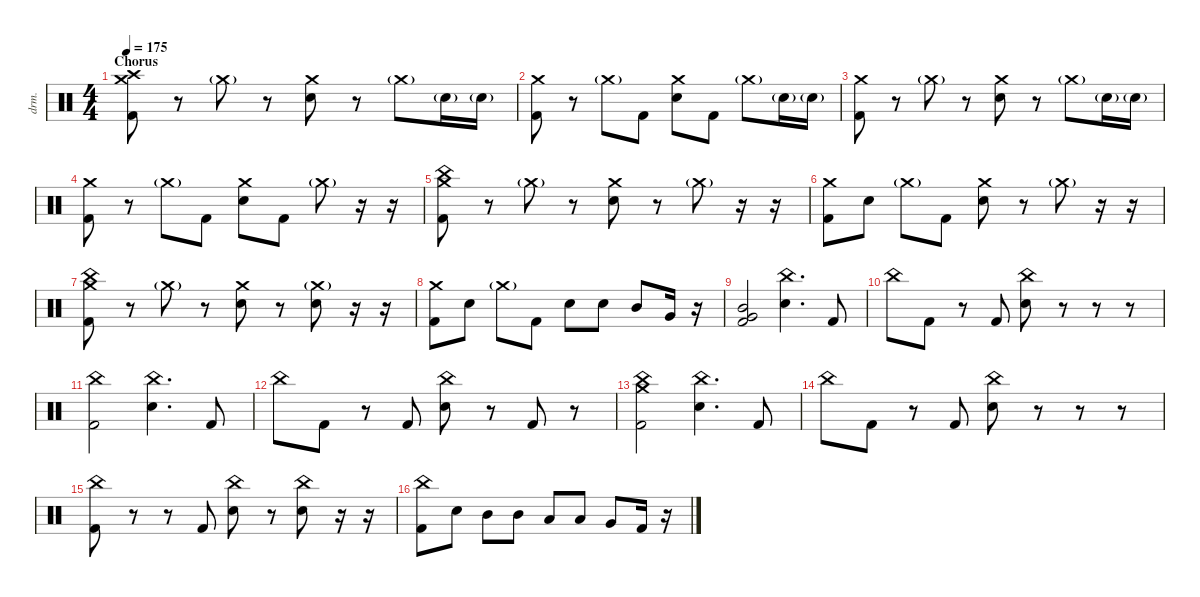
\defaultSystemsLayout 4
\hideDynamics
\bracketExtendMode nobrackets
\track ("Drums - Mario" "drm.") {instrument percussion}
\staff {score}
\articulation defaults
\ts (4 4)
\section ("" "Chorus")
\tempo 175
\clef neutral
\ks c
("Crash medium (hit)" "Crash high (hit)" "Kick (hit) 2").8{dy ff} r.8 "Crash medium (hit)"{g}.8 r.8 ("Crash medium (hit)" "Snare (hit) 2").8 r.8 "Crash medium (hit)"{g}.8 "Snare (hit) 2"{g}.16 "Snare (hit) 2"{g}.16 |
("Crash medium (hit)" "Kick (hit) 2").8 r.8 "Crash medium (hit)"{g}.8 "Kick (hit) 2".8 ("Crash medium (hit)" "Snare (hit) 2").8 "Kick (hit) 2".8 "Crash medium (hit)"{g}.8 "Snare (hit) 2"{g}.16 "Snare (hit) 2"{g}.16 |
("Crash medium (hit)" "Kick (hit) 2").8 r.8 "Crash medium (hit)"{g}.8 r.8 ("Crash medium (hit)" "Snare (hit) 2").8 r.8 "Crash medium (hit)"{g}.8 "Snare (hit) 2"{g}.16 "Snare (hit) 2"{g}.16 |
("Crash medium (hit)" "Kick (hit) 2").8 r.8 "Crash medium (hit)"{g}.8 "Kick (hit) 2".8 ("Crash medium (hit)" "Snare (hit) 2").8 "Kick (hit) 2".8 "Crash medium (hit)"{g}.8 r.16 r.16 |
("Crash medium (hit)" "China (hit)" "Kick (hit) 2").8 r.8 "Crash medium (hit)"{g}.8 r.8 ("Crash medium (hit)" "Snare (hit) 2").8 r.8 "Crash medium (hit)"{g}.8 r.16 r.16 |
("Crash medium (hit)" "Kick (hit) 2").8 "Snare (hit) 2".8 "Crash medium (hit)"{g}.8 "Kick (hit) 2".8 ("Crash medium (hit)" "Snare (hit) 2").8 r.8 "Crash medium (hit)"{g}.8 r.16 r.16 |
("Crash medium (hit)" "Kick (hit) 2" "China (hit)").8 r.8 "Crash medium (hit)"{g}.8 r.8 ("Crash medium (hit)" "Snare (hit) 2").8 r.8 ("Crash medium (hit)"{g} "Snare (hit) 2").8 r.16 r.16 |
("Crash medium (hit)" "Kick (hit) 2").8 "Snare (hit) 2".8 "Crash medium (hit)"{g}.8 "Kick (hit) 2".8 "Snare (hit) 2".8 "Snare (hit) 2".8 "Mid Tom (hit)".8 "Very Low Tom (hit)".16 r.16 |
("Kick (hit) 2" "Very Low Tom (hit)" "Mid Tom (hit)").2 ("Snare (hit) 2" "China (hit)").4{d} "Kick (hit) 2".8 |
"China (hit)".8 "Kick (hit) 2".8 r.8 "Kick (hit) 2".8 ("Snare (hit) 2" "China (hit)").8 r.8 r.8 r.8 |
("Kick (hit) 2" "China (hit)").2 ("Snare (hit) 2" "China (hit)").4{d} "Kick (hit) 2".8 |
"China (hit)".8 "Kick (hit) 2".8 r.8 "Kick (hit) 2".8 ("Snare (hit) 2" "China (hit)").8 r.8 "Kick (hit) 2".8 r.8 |
("China (hit)" "Crash medium (hit)" "Kick (hit) 2").2 ("Snare (hit) 2" "China (hit)").4{d} "Kick (hit) 2".8 |
"China (hit)".8 "Kick (hit) 2".8 r.8 "Kick (hit) 2".8 ("Snare (hit) 2" "China (hit)").8 r.8 r.8 r.8 |
("Kick (hit) 2" "China (hit)").8 r.8 r.8 "Kick (hit) 2".8 ("Snare (hit) 2" "China (hit)").8 r.8 ("Snare (hit) 2" "China (hit)").8 r.16 r.16 |
("Kick (hit) 2" "China (hit)").8 "Snare (hit) 2".8 "Mid Tom (hit)".8 "Mid Tom (hit)".8 "Low Tom (hit)".8 "Low Tom (hit)".8 "Very Low Tom (hit)".8 "Kick (hit) 2".16 r.16
